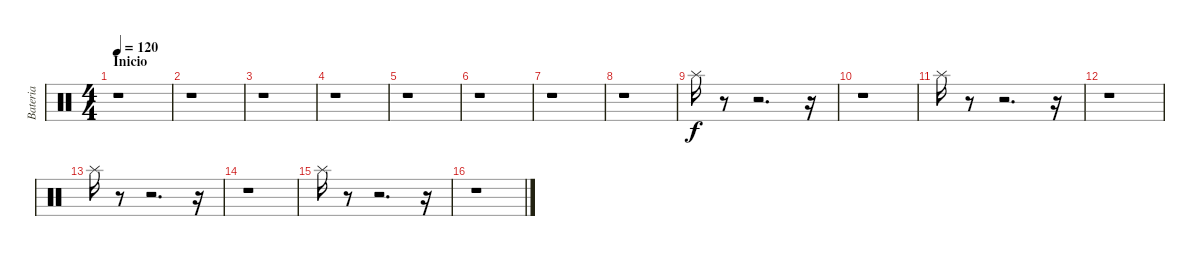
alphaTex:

\track ("Bateria" "Bateria") {instrument percussion}
\staff {score}
\articulation defaults
\ts (4 4)
\section ("" "Inicio")
\tempo 120
\clef neutral
\ks c
r.1{dy f} |
r.1 |
r.1 |
r.1 |
r.1 |
r.1 |
r.1 |
r.1 |
"Splash (hit)".16 r.8 r.2{d} r.16 |
r.1 |
"Splash (hit)".16 r.8 r.2{d} r.16 |
r.1 |
"Splash (hit)".16 r.8 r.2{d} r.16 |
r.1 |
"Splash (hit)".16 r.8 r.2{d} r.16 |
r.1
